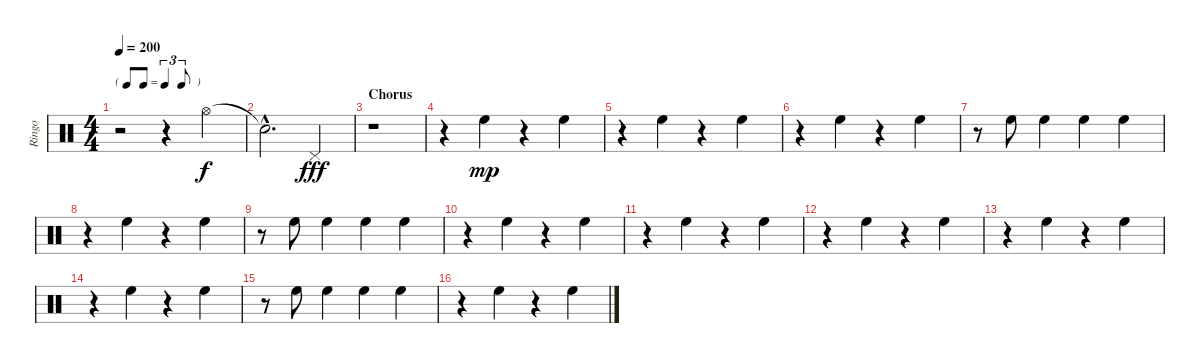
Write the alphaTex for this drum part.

\track ("Ringo" "Ringo") {instrument percussion}
\staff {score}
\articulation defaults
\ts (4 4)
\tf triplet8th
\tempo 200
\clef neutral
\ks c
r.2{dy f} r.4 "Hi-Hat (open)".4 |
"Snare (hit)"{hac t}.2{d} "Pedal Hi-Hat (hit)".4{dy fff} |
\section ("" "Chorus")
r.1 |
r.4 "High Floor Tom (hit)".4{dy mp} r.4 "High Floor Tom (hit)".4 |
r.4 "High Floor Tom (hit)".4 r.4 "High Floor Tom (hit)".4 |
r.4 "High Floor Tom (hit)".4 r.4 "High Floor Tom (hit)".4 |
r.8 "High Floor Tom (hit)".8 "High Floor Tom (hit)".4 "High Floor Tom (hit)".4 "High Floor Tom (hit)".4 |
r.4 "High Floor Tom (hit)".4 r.4 "High Floor Tom (hit)".4 |
r.8 "High Floor Tom (hit)".8 "High Floor Tom (hit)".4 "High Floor Tom (hit)".4 "High Floor Tom (hit)".4 |
r.4 "High Floor Tom (hit)".4 r.4 "High Floor Tom (hit)".4 |
r.4 "High Floor Tom (hit)".4 r.4 "High Floor Tom (hit)".4 |
r.4 "High Floor Tom (hit)".4 r.4 "High Floor Tom (hit)".4 |
r.4 "High Floor Tom (hit)".4 r.4 "High Floor Tom (hit)".4 |
r.4 "High Floor Tom (hit)".4 r.4 "High Floor Tom (hit)".4 |
r.8 "High Floor Tom (hit)".8 "High Floor Tom (hit)".4 "High Floor Tom (hit)".4 "High Floor Tom (hit)".4 |
r.4 "High Floor Tom (hit)".4 r.4 "High Floor Tom (hit)".4
